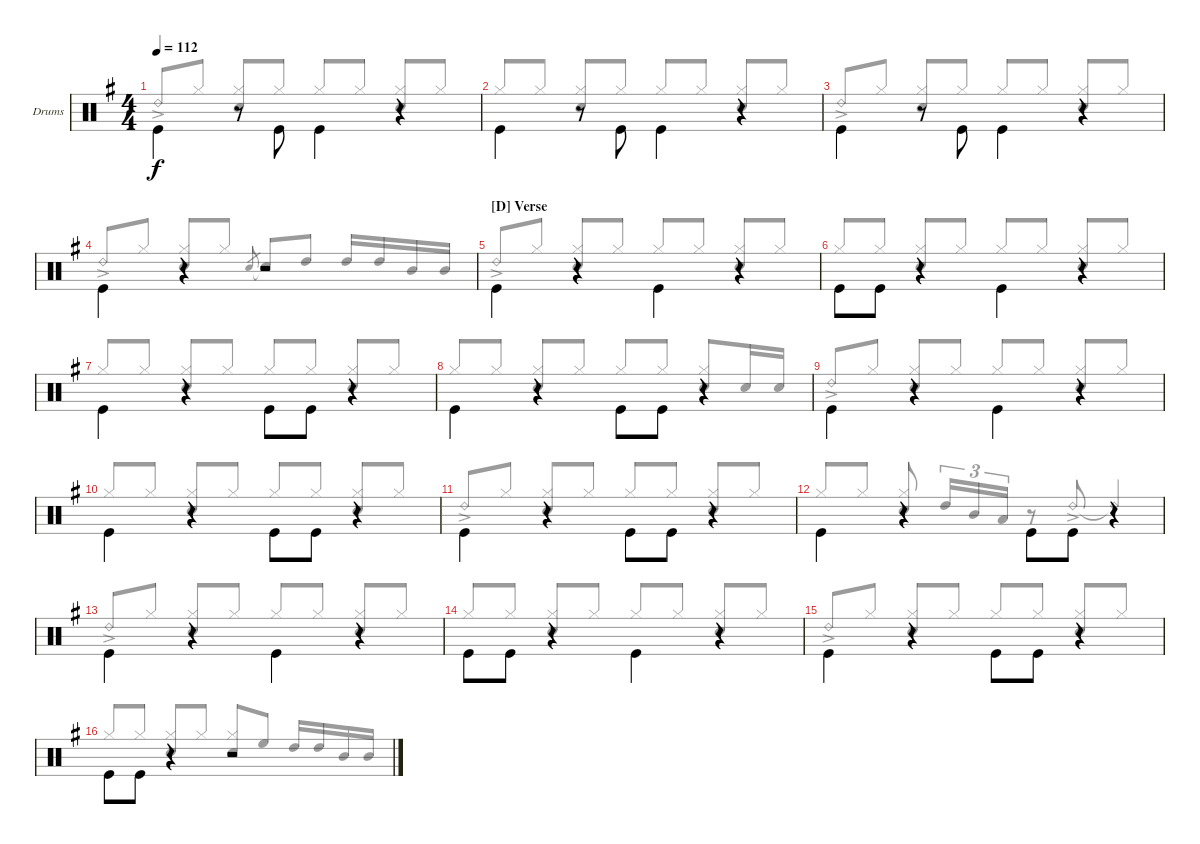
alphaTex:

\defaultSystemsLayout 4
\bracketExtendMode groupsimilarinstruments
\firstSystemTrackNameOrientation horizontal
\otherSystemsTrackNameOrientation horizontal
\track ("Drumkit" "Drums") {instrument percussion}
\staff {score}
\articulation defaults
\voice
\ts (4 4)
\tempo 112
\clef neutral
\scale
1.04288
\ks g "Kick (hit)".4{dy f beam invert}
r.8{beam invert} "Kick (hit)".8{beam invert} "Kick (hit)".4{beam invert} r.4{beam invert} |
\scale
0.957125 "Kick (hit)".4{beam invert} r.8{beam invert} "Kick (hit)".8{beam invert} "Kick (hit)".4{beam invert} r.4{beam invert} |
\scale
1.04288 "Kick (hit)".4{beam invert} r.8{beam invert} "Kick (hit)".8{beam invert} "Kick (hit)".4{beam invert} r.4{beam invert} |
\scale
0.957125 "Kick (hit)".4{beam invert} r.4{beam invert} r.2 |
\section ("D" "Verse")
\scale
1.04288 "Kick (hit)".4{beam invert} r.4{beam invert} "Kick (hit)".4{beam invert} r.4{beam invert} |
\scale
0.957125 "Kick (hit)".8{beam invert} "Kick (hit)".8 r.4{beam invert} "Kick (hit)".4{beam invert} r.4{beam invert} |
\scale
1.04288 "Kick (hit)".4{beam invert} r.4{beam invert} "Kick (hit)".8{beam invert} "Kick (hit)".8 r.4{beam invert} |
\scale
0.957125 "Kick (hit)".4{beam invert} r.4{beam invert} "Kick (hit)".8{beam invert} "Kick (hit)".8 r.4{beam invert} |
\scale
1.04288 "Kick (hit)".4{beam invert} r.4{beam invert} "Kick (hit)".4{beam invert} r.4{beam invert} |
\scale
0.957125 "Kick (hit)".4{beam invert} r.4{beam invert} "Kick (hit)".8{beam invert} "Kick (hit)".8 r.4{beam invert} |
\scale
1.04288 "Kick (hit)".4{beam invert} r.4{beam invert} "Kick (hit)".8{beam invert} "Kick (hit)".8 r.4{beam invert} |
\scale
0.957125 "Kick (hit)".4{beam invert} r.4{beam invert} "Kick (hit)".8{beam invert} "Kick (hit)".8 r.4{beam invert} |
\scale
1.04288 "Kick (hit)".4{beam invert} r.4{beam invert} "Kick (hit)".4{beam invert} r.4{beam invert} |
\scale
0.957125 "Kick (hit)".8{beam invert} "Kick (hit)".8 r.4{beam invert} "Kick (hit)".4{beam invert} r.4{beam invert} |
\scale
1.04288 "Kick (hit)".4{beam invert} r.4{beam invert} "Kick (hit)".8{beam invert} "Kick (hit)".8 r.4{beam invert} |
\scale
0.957125 "Kick (hit)".8{beam invert} "Kick (hit)".8 r.4{beam invert} r.2
\voice
\clef neutral
\ottava regular
\simile none
\scale
1.04288
\ks g "Ride (bell) 2"{ac}.8{dy f beam invert} "Hi-Hat (closed)".8
("Hi-Hat (closed)" "Snare (hit) 2").8{beam invert} "Hi-Hat (closed)".8 "Hi-Hat (closed)".8{beam invert} "Hi-Hat (closed)".8 ("Hi-Hat (closed)" "Snare (hit) 2").8{beam invert} "Hi-Hat (closed)".8 |
\scale
0.957125 "Hi-Hat (closed)".8{beam invert} "Hi-Hat (closed)".8 ("Hi-Hat (closed)" "Snare (hit) 2").8{beam invert} "Hi-Hat (closed)".8 "Hi-Hat (closed)".8{beam invert} "Hi-Hat (closed)".8 ("Hi-Hat (closed)" "Snare (hit) 2").8{beam invert} "Hi-Hat (closed)".8 |
\scale
1.04288 "Ride (bell) 2"{ac}.8{beam invert} "Hi-Hat (closed)".8 ("Hi-Hat (closed)" "Snare (hit) 2").8{beam invert} "Hi-Hat (closed)".8 "Hi-Hat (closed)".8{beam invert} "Hi-Hat (closed)".8 ("Hi-Hat (closed)" "Snare (hit) 2").8{beam invert} "Hi-Hat (closed)".8 |
\scale
0.957125 "Ride (bell) 2"{ac}.8{beam invert} "Hi-Hat (closed)".8 ("Hi-Hat (closed)" "Snare (hit) 2").8{beam invert} "Hi-Hat (closed)".8 "Snare (hit) 2".8{gr beam invert} "Snare (hit) 2"{t}.8{beam invert} "High Tom (hit)".8 "High Tom (hit)".16{beam invert} "High Tom (hit)".16 "Mid Tom (hit)".16 "Mid Tom (hit)".16 |
\scale
1.04288 "Ride (bell) 2"{ac}.8{beam invert} "Hi-Hat (closed)".8 ("Hi-Hat (closed)" "Snare (hit) 2").8{beam invert} "Hi-Hat (closed)".8 "Hi-Hat (closed)".8{beam invert} "Hi-Hat (closed)".8 ("Hi-Hat (closed)" "Snare (hit) 2").8{beam invert} "Hi-Hat (closed)".8 |
\scale
0.957125 "Hi-Hat (closed)".8{beam invert} "Hi-Hat (closed)".8 ("Hi-Hat (closed)" "Snare (hit) 2").8{beam invert} "Hi-Hat (closed)".8 "Hi-Hat (closed)".8{beam invert} "Hi-Hat (closed)".8 ("Hi-Hat (closed)" "Snare (hit) 2").8{beam invert} "Hi-Hat (closed)".8 |
\scale
1.04288 "Hi-Hat (closed)".8{beam invert} "Hi-Hat (closed)".8 ("Hi-Hat (closed)" "Snare (hit) 2").8{beam invert} "Hi-Hat (closed)".8 "Hi-Hat (closed)".8{beam invert} "Hi-Hat (closed)".8 ("Hi-Hat (closed)" "Snare (hit) 2").8{beam invert} "Hi-Hat (closed)".8 |
\scale
0.957125 "Hi-Hat (closed)".8{beam invert} "Hi-Hat (closed)".8 ("Hi-Hat (closed)" "Snare (hit) 2").8{beam invert} "Hi-Hat (closed)".8 "Hi-Hat (closed)".8{beam invert} "Hi-Hat (closed)".8 ("Hi-Hat (closed)" "Snare (hit) 2").8{beam invert} "Snare (hit) 2".16 "Snare (hit) 2".16 |
\scale
1.04288 "Ride (bell) 2"{ac}.8{beam invert} "Hi-Hat (closed)".8 ("Hi-Hat (closed)" "Snare (hit) 2").8{beam invert} "Hi-Hat (closed)".8 "Hi-Hat (closed)".8{beam invert} "Hi-Hat (closed)".8 ("Hi-Hat (closed)" "Snare (hit) 2").8{beam invert} "Hi-Hat (closed)".8 |
\scale
0.957125 "Hi-Hat (closed)".8{beam invert} "Hi-Hat (closed)".8 ("Hi-Hat (closed)" "Snare (hit) 2").8{beam invert} "Hi-Hat (closed)".8 "Hi-Hat (closed)".8{beam invert} "Hi-Hat (closed)".8 ("Hi-Hat (closed)" "Snare (hit) 2").8{beam invert} "Hi-Hat (closed)".8 |
\scale
1.04288 "Ride (bell) 2"{ac}.8{beam invert} "Hi-Hat (closed)".8 ("Hi-Hat (closed)" "Snare (hit) 2").8{beam invert} "Hi-Hat (closed)".8 "Hi-Hat (closed)".8{beam invert} "Hi-Hat (closed)".8 ("Hi-Hat (closed)" "Snare (hit) 2").8{beam invert} "Hi-Hat (closed)".8 |
\scale
0.957125 "Hi-Hat (closed)".8{beam invert} "Hi-Hat (closed)".8 ("Hi-Hat (closed)" "Snare (hit) 2").8{beam invert} "High Tom (hit)".16{tu (3 2) beam invert} "Mid Tom (hit)".16{tu (3 2)} "Low Tom (hit)".16{tu (3 2)} r.8 "Ride (bell) 2"{ac}.8{beam invert} "Ride (bell) 2"{t}.4{beam invert} |
\scale
1.04288 "Ride (bell) 2"{ac}.8{beam invert} "Hi-Hat (closed)".8 ("Hi-Hat (closed)" "Snare (hit) 2").8{beam invert} "Hi-Hat (closed)".8 "Hi-Hat (closed)".8{beam invert} "Hi-Hat (closed)".8 ("Hi-Hat (closed)" "Snare (hit) 2").8{beam invert} "Hi-Hat (closed)".8 |
\scale
0.957125 "Hi-Hat (closed)".8{beam invert} "Hi-Hat (closed)".8 ("Hi-Hat (closed)" "Snare (hit) 2").8{beam invert} "Hi-Hat (closed)".8 "Hi-Hat (closed)".8{beam invert} "Hi-Hat (closed)".8 ("Hi-Hat (closed)" "Snare (hit) 2").8{beam invert} "Hi-Hat (closed)".8 |
\scale
1.04288 "Ride (bell) 2"{ac}.8{beam invert} "Hi-Hat (closed)".8 ("Hi-Hat (closed)" "Snare (hit) 2").8{beam invert} "Hi-Hat (closed)".8 "Hi-Hat (closed)".8{beam invert} "Hi-Hat (closed)".8 ("Hi-Hat (closed)" "Snare (hit) 2").8{beam invert} "Hi-Hat (closed)".8 |
\scale
0.957125 "Hi-Hat (closed)".8{beam invert} "Hi-Hat (closed)".8 ("Hi-Hat (closed)" "Snare (hit) 2").8{beam invert} "Hi-Hat (closed)".8 ("Hi-Hat (closed)" "Snare (hit) 2").8{beam invert} "High Floor Tom (hit)".8 "High Tom (hit)".16{beam invert} "High Tom (hit)".16 "Mid Tom (hit)".16 "Mid Tom (hit)".16
